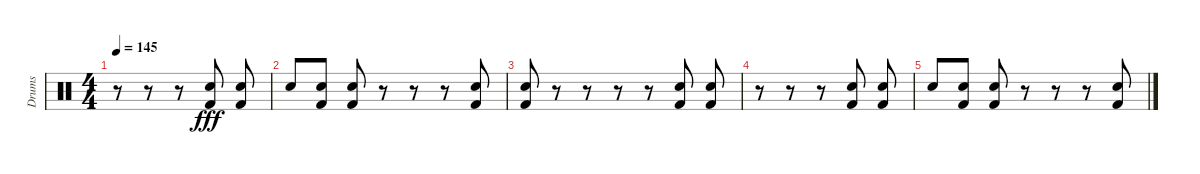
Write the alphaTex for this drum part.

\track ("Drums" "Drums") {instrument percussion}
\staff {score}
\articulation defaults
\ts (4 4)
\tempo 145
\clef neutral
\ks c
r.8{dy fff} r.8 r.8 ("Kick (hit) 2" "Electric Snare (hit)").8 ("Kick (hit) 2" "Electric Snare (hit)").8 |
"Snare (hit)".8 ("Kick (hit) 2" "Electric Snare (hit)").8 ("Kick (hit) 2" "Electric Snare (hit)").8 r.8 r.8 r.8 ("Electric Snare (hit)" "Kick (hit) 2").8 |
("Kick (hit) 2" "Electric Snare (hit)").8 r.8 r.8 r.8 r.8 ("Kick (hit) 2" "Electric Snare (hit)").8 ("Kick (hit) 2" "Electric Snare (hit)").8 |
r.8 r.8 r.8 ("Kick (hit) 2" "Electric Snare (hit)").8 ("Kick (hit) 2" "Electric Snare (hit)").8 |
"Snare (hit)".8 ("Kick (hit) 2" "Electric Snare (hit)").8 ("Kick (hit) 2" "Electric Snare (hit)").8 r.8 r.8 r.8 ("Electric Snare (hit)" "Kick (hit) 2").8
